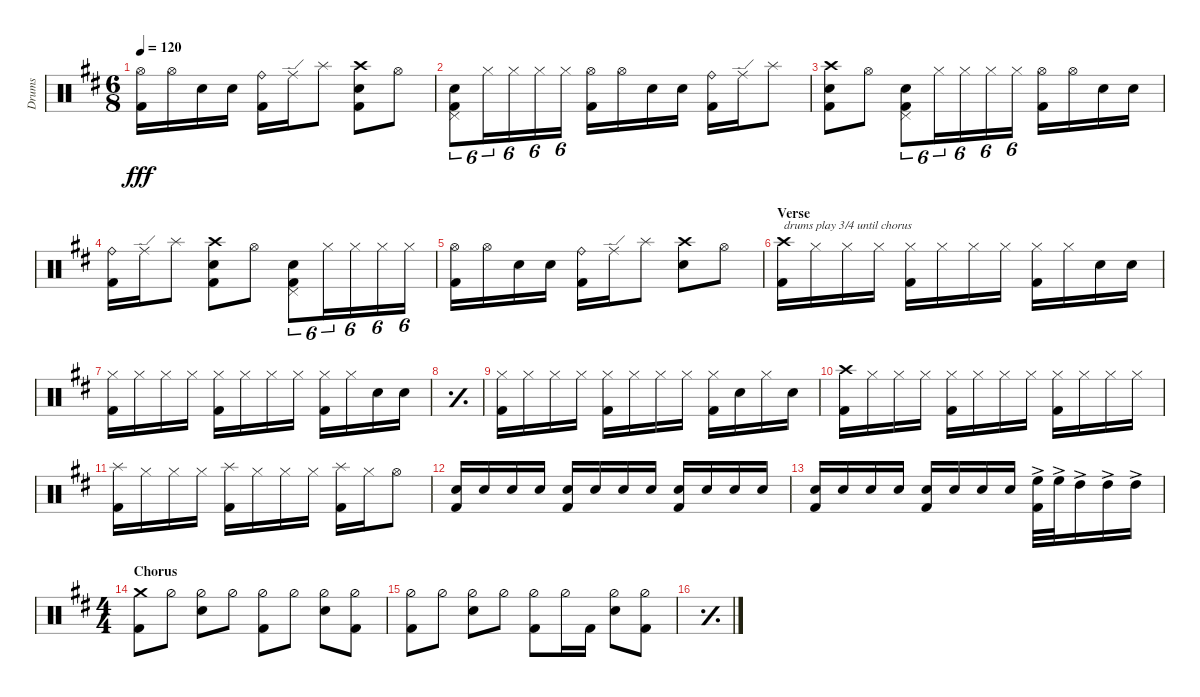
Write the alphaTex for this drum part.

\defaultSystemsLayout 4
\bracketExtendMode groupsimilarinstruments
\otherSystemsTrackNameOrientation horizontal
\track ("Drumkit" "Drums") {multiBarRest instrument percussion}
\staff {score}
\articulation defaults
\ts (6 8)
\tempo 120
\clef neutral
\ks d
("Hi-Hat (open)"{acc forcenatural} "Kick (hit) 2"{acc forcenatural}).16{dy fff beam merge} "Hi-Hat (open)"{acc forcenatural}.16{beam merge} "Snare (hit) 2"{acc forcenatural}.16{beam merge} "Snare (hit) 2"{acc forcenatural}.16{beam split} ("Kick (hit) 2"{acc forcenatural} "Ride (bell)"{acc forcenatural}).16{beam merge} "Ride (edge)"{acc forcenatural}.16{beam merge} "Splash (hit)"{acc forcenatural}.8{beam split} ("Snare (hit) 2"{acc forcenatural} "Kick (hit) 2"{acc forcenatural} "Crash high (hit)"{acc forcenatural}).8{beam merge} "Hi-Hat (open)"{acc forcenatural}.8{beam merge} |
("Kick (hit) 2"{acc forcenatural} "Snare (hit) 2"{acc forcenatural} "Pedal Hi-Hat (hit)"{acc forcenatural}).8{tu (6 4) beam merge} "Hi-Hat (closed)"{acc forcenatural}.16{tu (6 4) beam merge} "Hi-Hat (closed)"{acc forcenatural}.16{tu (6 4) beam merge} "Hi-Hat (closed)"{acc forcenatural}.16{tu (6 4) beam merge} "Hi-Hat (closed)"{acc forcenatural}.16{tu (6 4) beam split} ("Hi-Hat (open)"{acc forcenatural} "Kick (hit) 2"{acc forcenatural}).16{beam merge} "Hi-Hat (open)"{acc forcenatural}.16{beam merge} "Snare (hit) 2"{acc forcenatural}.16{beam merge} "Snare (hit) 2"{acc forcenatural}.16{beam split} ("Kick (hit) 2"{acc forcenatural} "Ride (bell)"{acc forcenatural}).16{beam merge} "Ride (edge)"{acc forcenatural}.16{beam merge} "Splash (hit)"{acc forcenatural}.8{beam merge} |
("Snare (hit) 2"{acc forcenatural} "Kick (hit) 2"{acc forcenatural} "Crash high (hit)"{acc forcenatural}).8{beam merge} "Hi-Hat (open)"{acc forcenatural}.8{beam split} ("Kick (hit) 2"{acc forcenatural} "Snare (hit) 2"{acc forcenatural} "Pedal Hi-Hat (hit)"{acc forcenatural}).8{tu (6 4) beam merge} "Hi-Hat (closed)"{acc forcenatural}.16{tu (6 4) beam merge} "Hi-Hat (closed)"{acc forcenatural}.16{tu (6 4) beam merge} "Hi-Hat (closed)"{acc forcenatural}.16{tu (6 4) beam merge} "Hi-Hat (closed)"{acc forcenatural}.16{tu (6 4) beam split} ("Hi-Hat (open)"{acc forcenatural} "Kick (hit) 2"{acc forcenatural}).16{beam merge} "Hi-Hat (open)"{acc forcenatural}.16{beam merge} "Snare (hit) 2"{acc forcenatural}.16{beam merge} "Snare (hit) 2"{acc forcenatural}.16{beam merge} |
("Kick (hit) 2"{acc forcenatural} "Ride (bell)"{acc forcenatural}).16{beam merge} "Ride (edge)"{acc forcenatural}.16{beam merge} "Splash (hit)"{acc forcenatural}.8{beam split} ("Snare (hit) 2"{acc forcenatural} "Kick (hit) 2"{acc forcenatural} "Crash high (hit)"{acc forcenatural}).8{beam merge} "Hi-Hat (open)"{acc forcenatural}.8{beam split} ("Kick (hit) 2"{acc forcenatural} "Snare (hit) 2"{acc forcenatural} "Pedal Hi-Hat (hit)"{acc forcenatural}).8{tu (6 4) beam merge} "Hi-Hat (closed)"{acc forcenatural}.16{tu (6 4) beam merge} "Hi-Hat (closed)"{acc forcenatural}.16{tu (6 4) beam merge} "Hi-Hat (closed)"{acc forcenatural}.16{tu (6 4) beam merge} "Hi-Hat (closed)"{acc forcenatural}.16{tu (6 4) beam merge} |
("Hi-Hat (open)"{acc forcenatural} "Kick (hit) 2"{acc forcenatural}).16{beam merge} "Hi-Hat (open)"{acc forcenatural}.16{beam merge} "Snare (hit) 2"{acc forcenatural}.16{beam merge} "Snare (hit) 2"{acc forcenatural}.16{beam split} ("Kick (hit) 2"{acc forcenatural} "Ride (bell)"{acc forcenatural}).16{beam merge} "Ride (edge)"{acc forcenatural}.16{beam merge} "Splash (hit)"{acc forcenatural}.8{beam split} ("Snare (hit) 2"{acc forcenatural} "Crash high (hit)"{acc forcenatural}).8{beam merge} "Hi-Hat (open)"{acc forcenatural}.8{beam merge} |
\section ("" "Verse")
("Kick (hit) 2"{acc forcenatural} "Crash high (hit)"{acc forcenatural}).16{txt "drums play 3/4 until chorus" beam merge} "Hi-Hat (closed)"{acc forcenatural}.16{beam merge} "Hi-Hat (closed)"{acc forcenatural}.16{beam merge} "Hi-Hat (closed)"{acc forcenatural}.16{beam split} ("Hi-Hat (closed)"{acc forcenatural} "Kick (hit) 2"{acc forcenatural}).16{beam merge} "Hi-Hat (closed)"{acc forcenatural}.16{beam merge} "Hi-Hat (closed)"{acc forcenatural}.16{beam merge} "Hi-Hat (closed)"{acc forcenatural}.16{beam split} ("Hi-Hat (closed)"{acc forcenatural} "Kick (hit) 2"{acc forcenatural}).16{beam merge} "Hi-Hat (closed)"{acc forcenatural}.16{beam merge} "Snare (hit) 2"{acc forcenatural}.16{beam merge} "Snare (hit) 2"{acc forcenatural}.16{beam merge} |
("Hi-Hat (closed)"{acc forcenatural} "Kick (hit) 2"{acc forcenatural}).16{beam merge} "Hi-Hat (closed)"{acc forcenatural}.16{beam merge} "Hi-Hat (closed)"{acc forcenatural}.16{beam merge} "Hi-Hat (closed)"{acc forcenatural}.16{beam split} ("Hi-Hat (closed)"{acc forcenatural} "Kick (hit) 2"{acc forcenatural}).16{beam merge} "Hi-Hat (closed)"{acc forcenatural}.16{beam merge} "Hi-Hat (closed)"{acc forcenatural}.16{beam merge} "Hi-Hat (closed)"{acc forcenatural}.16{beam split} ("Hi-Hat (closed)"{acc forcenatural} "Kick (hit) 2"{acc forcenatural}).16{beam merge} "Hi-Hat (closed)"{acc forcenatural}.16{beam merge} "Snare (hit) 2"{acc forcenatural}.16{beam merge} "Snare (hit) 2"{acc forcenatural}.16{beam merge} |
\simile simple
|
\simile none
("Hi-Hat (closed)"{acc forcenatural} "Kick (hit) 2"{acc forcenatural}).16{beam merge} "Hi-Hat (closed)"{acc forcenatural}.16{beam merge} "Hi-Hat (closed)"{acc forcenatural}.16{beam merge} "Hi-Hat (closed)"{acc forcenatural}.16{beam split} ("Hi-Hat (closed)"{acc forcenatural} "Kick (hit) 2"{acc forcenatural}).16{beam merge} "Hi-Hat (closed)"{acc forcenatural}.16{beam merge} "Hi-Hat (closed)"{acc forcenatural}.16{beam merge} "Hi-Hat (closed)"{acc forcenatural}.16{beam split} ("Kick (hit) 2"{acc forcenatural} "Hi-Hat (closed)"{acc forcenatural}).16{beam merge} "Snare (hit) 2"{acc forcenatural}.16{beam merge} "Hi-Hat (closed)"{acc forcenatural}.16{beam merge} "Snare (hit) 2"{acc forcenatural}.16{beam merge} |
("Kick (hit) 2"{acc forcenatural} "Crash high (hit)"{acc forcenatural}).16{beam merge} "Hi-Hat (closed)"{acc forcenatural}.16{beam merge} "Hi-Hat (closed)"{acc forcenatural}.16{beam merge} "Hi-Hat (closed)"{acc forcenatural}.16{beam split} ("Hi-Hat (closed)"{acc forcenatural} "Kick (hit) 2"{acc forcenatural}).16{beam merge} "Hi-Hat (closed)"{acc forcenatural}.16{beam merge} "Hi-Hat (closed)"{acc forcenatural}.16{beam merge} "Hi-Hat (closed)"{acc forcenatural}.16{beam split} ("Hi-Hat (closed)"{acc forcenatural} "Kick (hit) 2"{acc forcenatural}).16{beam merge} "Hi-Hat (closed)"{acc forcenatural}.16{beam merge} "Hi-Hat (closed)"{acc forcenatural}.16{beam merge} "Hi-Hat (closed)"{acc forcenatural}.16{beam merge} |
("Kick (hit) 2"{acc forcenatural} "Splash (hit)"{acc forcenatural}).16{beam merge} "Hi-Hat (closed)"{acc forcenatural}.16{beam merge} "Hi-Hat (closed)"{acc forcenatural}.16{beam merge} "Hi-Hat (closed)"{acc forcenatural}.16{beam split} ("Kick (hit) 2"{acc forcenatural} "Splash (hit)"{acc forcenatural}).16{beam merge} "Hi-Hat (closed)"{acc forcenatural}.16{beam merge} "Hi-Hat (closed)"{acc forcenatural}.16{beam merge} "Hi-Hat (closed)"{acc forcenatural}.16{beam split} ("Kick (hit) 2"{acc forcenatural} "Splash (hit)"{acc forcenatural}).16{beam merge} "Hi-Hat (closed)"{acc forcenatural}.16{beam merge} "Hi-Hat (open)"{acc forcenatural}.8{beam merge} |
("Kick (hit) 2"{acc forcenatural} "Snare (hit) 2"{acc forcenatural}).16{beam merge} "Snare (hit) 2"{acc forcenatural}.16{beam merge} "Snare (hit) 2"{acc forcenatural}.16{beam merge} "Snare (hit) 2"{acc forcenatural}.16{beam split} ("Snare (hit) 2"{acc forcenatural} "Kick (hit) 2"{acc forcenatural}).16{beam merge} "Snare (hit) 2"{acc forcenatural}.16{beam merge} "Snare (hit) 2"{acc forcenatural}.16{beam merge} "Snare (hit) 2"{acc forcenatural}.16{beam split} ("Snare (hit) 2"{acc forcenatural} "Kick (hit) 2"{acc forcenatural}).16{beam merge} "Snare (hit) 2"{acc forcenatural}.16{beam merge} "Snare (hit) 2"{acc forcenatural}.16{beam merge} "Snare (hit) 2"{acc forcenatural}.16{beam merge} |
("Snare (hit) 2"{acc forcenatural} "Kick (hit) 2"{acc forcenatural}).16{beam merge} "Snare (hit) 2"{acc forcenatural}.16{beam merge} "Snare (hit) 2"{acc forcenatural}.16{beam merge} "Snare (hit) 2"{acc forcenatural}.16{beam split} ("Snare (hit) 2"{acc forcenatural} "Kick (hit) 2"{acc forcenatural}).16{beam merge} "Snare (hit) 2"{acc forcenatural}.16{beam merge} "Snare (hit) 2"{acc forcenatural}.16{beam merge} "Snare (hit) 2"{acc forcenatural}.16{beam split} ("Kick (hit) 2"{acc forcenatural} "High Floor Tom (hit)"{ac acc forcenatural}).32{beam merge} "High Floor Tom (hit)"{ac acc forcenatural}.32{beam merge} "High Tom (hit)"{ac acc forcenatural}.16{beam merge} "High Tom (hit)"{ac acc forcenatural}.16{beam merge} "High Tom (hit)"{ac acc forcenatural}.16 |
\ts (4 4)
\beaming (8 2 2 2 2)
\section ("" "Chorus")
("Crash medium (hit)"{acc forcenatural} "Kick (hit) 2"{acc forcenatural}).8 "Hi-Hat (half)"{acc forcenatural}.8 ("Hi-Hat (half)"{acc forcenatural} "Snare (hit) 2"{acc forcenatural}).8 "Hi-Hat (half)"{acc forcenatural}.8 ("Hi-Hat (half)"{acc forcenatural} "Kick (hit) 2"{acc forcenatural}).8 "Hi-Hat (half)"{acc forcenatural}.8 ("Hi-Hat (half)"{acc forcenatural} "Snare (hit) 2"{acc forcenatural}).8 ("Hi-Hat (half)"{acc forcenatural} "Kick (hit) 2"{acc forcenatural}).8 |
("Kick (hit) 2"{acc forcenatural} "Hi-Hat (half)"{acc forcenatural}).8 "Hi-Hat (half)"{acc forcenatural}.8 ("Hi-Hat (half)"{acc forcenatural} "Snare (hit) 2"{acc forcenatural}).8 "Hi-Hat (half)"{acc forcenatural}.8 ("Hi-Hat (half)"{acc forcenatural} "Kick (hit) 2"{acc forcenatural}).8 "Hi-Hat (half)"{acc forcenatural}.16 "Kick (hit) 2"{acc forcenatural}.16 ("Hi-Hat (half)"{acc forcenatural} "Snare (hit) 2"{acc forcenatural}).8 ("Hi-Hat (half)"{acc forcenatural} "Kick (hit) 2"{acc forcenatural}).8 |
\simile simple
